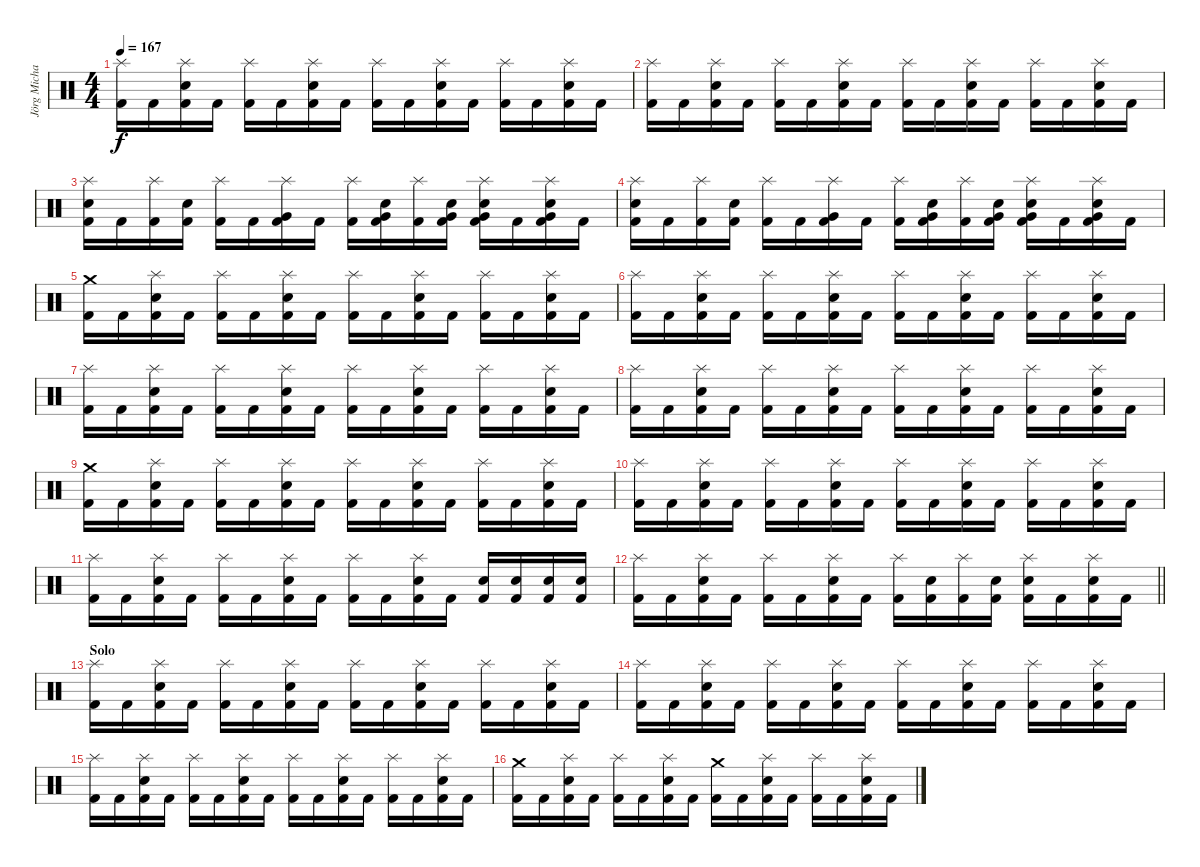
\track ("Jörg Michael" "Jörg Micha") {instrument percussion}
\staff {score}
\articulation defaults
\ts (4 4)
\tempo 167
\clef neutral
\ks c
("Splash (hit)" "Kick (hit) 2").16{dy f} "Kick (hit) 2".16 ("Splash (hit)" "Snare (hit) 2" "Kick (hit) 2").16 "Kick (hit) 2".16 ("Splash (hit)" "Kick (hit) 2").16 "Kick (hit) 2".16 ("Splash (hit)" "Snare (hit) 2" "Kick (hit) 2").16 "Kick (hit) 2".16 ("Splash (hit)" "Kick (hit) 2").16 "Kick (hit) 2".16 ("Splash (hit)" "Snare (hit) 2" "Kick (hit) 2").16 "Kick (hit) 2".16 ("Splash (hit)" "Kick (hit) 2").16 "Kick (hit) 2".16 ("Splash (hit)" "Snare (hit) 2" "Kick (hit) 2").16 "Kick (hit) 2".16 |
("Splash (hit)" "Kick (hit) 2").16 "Kick (hit) 2".16 ("Splash (hit)" "Snare (hit) 2" "Kick (hit) 2").16 "Kick (hit) 2".16 ("Splash (hit)" "Kick (hit) 2").16 "Kick (hit) 2".16 ("Splash (hit)" "Snare (hit) 2" "Kick (hit) 2").16 "Kick (hit) 2".16 ("Splash (hit)" "Kick (hit) 2").16 "Kick (hit) 2".16 ("Splash (hit)" "Snare (hit) 2" "Kick (hit) 2").16 "Kick (hit) 2".16 ("Splash (hit)" "Kick (hit) 2").16 "Kick (hit) 2".16 ("Splash (hit)" "Snare (hit) 2" "Kick (hit) 2").16 "Kick (hit) 2".16 |
("Splash (hit)" "Snare (hit) 2" "Kick (hit) 2").16 "Kick (hit) 2".16 ("Splash (hit)" "Kick (hit) 2").16 ("Snare (hit) 2" "Kick (hit) 2").16 ("Splash (hit)" "Kick (hit) 2").16 "Kick (hit) 2".16 ("Splash (hit)" "Very Low Tom (hit)" "Kick (hit) 2").16 "Kick (hit) 2".16 ("Splash (hit)" "Kick (hit) 2").16 ("Snare (hit) 2" "Very Low Tom (hit)" "Kick (hit) 2").16 ("Splash (hit)" "Kick (hit) 2").16 ("Very Low Tom (hit)" "Snare (hit) 2" "Kick (hit) 2").16 ("Splash (hit)" "Very Low Tom (hit)" "Snare (hit) 2" "Kick (hit) 2").16 "Kick (hit) 2".16 ("Splash (hit)" "Very Low Tom (hit)" "Snare (hit) 2" "Kick (hit) 2").16 "Kick (hit) 2".16 |
("Splash (hit)" "Snare (hit) 2" "Kick (hit) 2").16 "Kick (hit) 2".16 ("Splash (hit)" "Kick (hit) 2").16 ("Snare (hit) 2" "Kick (hit) 2").16 ("Splash (hit)" "Kick (hit) 2").16 "Kick (hit) 2".16 ("Splash (hit)" "Very Low Tom (hit)" "Kick (hit) 2").16 "Kick (hit) 2".16 ("Splash (hit)" "Kick (hit) 2").16 ("Snare (hit) 2" "Very Low Tom (hit)" "Kick (hit) 2").16 ("Splash (hit)" "Kick (hit) 2").16 ("Very Low Tom (hit)" "Snare (hit) 2" "Kick (hit) 2").16 ("Splash (hit)" "Very Low Tom (hit)" "Snare (hit) 2" "Kick (hit) 2").16 "Kick (hit) 2".16 ("Splash (hit)" "Very Low Tom (hit)" "Snare (hit) 2" "Kick (hit) 2").16 "Kick (hit) 2".16 |
("Crash medium (hit)" "Kick (hit) 2").16 "Kick (hit) 2".16 ("Splash (hit)" "Snare (hit) 2" "Kick (hit) 2").16 "Kick (hit) 2".16 ("Splash (hit)" "Kick (hit) 2").16 "Kick (hit) 2".16 ("Splash (hit)" "Snare (hit) 2" "Kick (hit) 2").16 "Kick (hit) 2".16 ("Splash (hit)" "Kick (hit) 2").16 "Kick (hit) 2".16 ("Splash (hit)" "Snare (hit) 2" "Kick (hit) 2").16 "Kick (hit) 2".16 ("Splash (hit)" "Kick (hit) 2").16 "Kick (hit) 2".16 ("Splash (hit)" "Snare (hit) 2" "Kick (hit) 2").16 "Kick (hit) 2".16 |
("Splash (hit)" "Kick (hit) 2").16 "Kick (hit) 2".16 ("Splash (hit)" "Snare (hit) 2" "Kick (hit) 2").16 "Kick (hit) 2".16 ("Splash (hit)" "Kick (hit) 2").16 "Kick (hit) 2".16 ("Splash (hit)" "Snare (hit) 2" "Kick (hit) 2").16 "Kick (hit) 2".16 ("Splash (hit)" "Kick (hit) 2").16 "Kick (hit) 2".16 ("Splash (hit)" "Snare (hit) 2" "Kick (hit) 2").16 "Kick (hit) 2".16 ("Splash (hit)" "Kick (hit) 2").16 "Kick (hit) 2".16 ("Splash (hit)" "Snare (hit) 2" "Kick (hit) 2").16 "Kick (hit) 2".16 |
("Splash (hit)" "Kick (hit) 2").16 "Kick (hit) 2".16 ("Splash (hit)" "Snare (hit) 2" "Kick (hit) 2").16 "Kick (hit) 2".16 ("Splash (hit)" "Kick (hit) 2").16 "Kick (hit) 2".16 ("Splash (hit)" "Snare (hit) 2" "Kick (hit) 2").16 "Kick (hit) 2".16 ("Splash (hit)" "Kick (hit) 2").16 "Kick (hit) 2".16 ("Splash (hit)" "Snare (hit) 2" "Kick (hit) 2").16 "Kick (hit) 2".16 ("Splash (hit)" "Kick (hit) 2").16 "Kick (hit) 2".16 ("Splash (hit)" "Snare (hit) 2" "Kick (hit) 2").16 "Kick (hit) 2".16 |
("Splash (hit)" "Kick (hit) 2").16 "Kick (hit) 2".16 ("Splash (hit)" "Snare (hit) 2" "Kick (hit) 2").16 "Kick (hit) 2".16 ("Splash (hit)" "Kick (hit) 2").16 "Kick (hit) 2".16 ("Splash (hit)" "Snare (hit) 2" "Kick (hit) 2").16 "Kick (hit) 2".16 ("Splash (hit)" "Kick (hit) 2").16 "Kick (hit) 2".16 ("Splash (hit)" "Snare (hit) 2" "Kick (hit) 2").16 "Kick (hit) 2".16 ("Splash (hit)" "Kick (hit) 2").16 "Kick (hit) 2".16 ("Splash (hit)" "Snare (hit) 2" "Kick (hit) 2").16 "Kick (hit) 2".16 |
("Crash medium (hit)" "Kick (hit) 2").16 "Kick (hit) 2".16 ("Splash (hit)" "Snare (hit) 2" "Kick (hit) 2").16 "Kick (hit) 2".16 ("Splash (hit)" "Kick (hit) 2").16 "Kick (hit) 2".16 ("Splash (hit)" "Snare (hit) 2" "Kick (hit) 2").16 "Kick (hit) 2".16 ("Splash (hit)" "Kick (hit) 2").16 "Kick (hit) 2".16 ("Splash (hit)" "Snare (hit) 2" "Kick (hit) 2").16 "Kick (hit) 2".16 ("Splash (hit)" "Kick (hit) 2").16 "Kick (hit) 2".16 ("Splash (hit)" "Snare (hit) 2" "Kick (hit) 2").16 "Kick (hit) 2".16 |
("Splash (hit)" "Kick (hit) 2").16 "Kick (hit) 2".16 ("Splash (hit)" "Snare (hit) 2" "Kick (hit) 2").16 "Kick (hit) 2".16 ("Splash (hit)" "Kick (hit) 2").16 "Kick (hit) 2".16 ("Splash (hit)" "Snare (hit) 2" "Kick (hit) 2").16 "Kick (hit) 2".16 ("Splash (hit)" "Kick (hit) 2").16 "Kick (hit) 2".16 ("Splash (hit)" "Snare (hit) 2" "Kick (hit) 2").16 "Kick (hit) 2".16 ("Splash (hit)" "Kick (hit) 2").16 "Kick (hit) 2".16 ("Splash (hit)" "Snare (hit) 2" "Kick (hit) 2").16 "Kick (hit) 2".16 |
("Splash (hit)" "Kick (hit) 2").16 "Kick (hit) 2".16 ("Splash (hit)" "Snare (hit) 2" "Kick (hit) 2").16 "Kick (hit) 2".16 ("Splash (hit)" "Kick (hit) 2").16 "Kick (hit) 2".16 ("Splash (hit)" "Snare (hit) 2" "Kick (hit) 2").16 "Kick (hit) 2".16 ("Splash (hit)" "Kick (hit) 2").16 "Kick (hit) 2".16 ("Splash (hit)" "Snare (hit) 2" "Kick (hit) 2").16 "Kick (hit) 2".16 ("Snare (hit) 2" "Kick (hit) 2").16 ("Snare (hit) 2" "Kick (hit) 2").16 ("Snare (hit) 2" "Kick (hit) 2").16 ("Snare (hit) 2" "Kick (hit) 2").16 |
\barLineRight lightlight
("Splash (hit)" "Kick (hit) 2").16 "Kick (hit) 2".16 ("Splash (hit)" "Snare (hit) 2" "Kick (hit) 2").16 "Kick (hit) 2".16 ("Splash (hit)" "Kick (hit) 2").16 "Kick (hit) 2".16 ("Splash (hit)" "Snare (hit) 2" "Kick (hit) 2").16 "Kick (hit) 2".16 ("Splash (hit)" "Kick (hit) 2").16 ("Snare (hit) 2" "Kick (hit) 2").16 ("Splash (hit)" "Kick (hit) 2").16 ("Snare (hit) 2" "Kick (hit) 2").16 ("Splash (hit)" "Snare (hit) 2" "Kick (hit) 2").16 "Kick (hit) 2".16 ("Splash (hit)" "Snare (hit) 2" "Kick (hit) 2").16 "Kick (hit) 2".16 |
\section ("" "Solo")
("Splash (hit)" "Kick (hit) 2").16 "Kick (hit) 2".16 ("Splash (hit)" "Snare (hit) 2" "Kick (hit) 2").16 "Kick (hit) 2".16 ("Splash (hit)" "Kick (hit) 2").16 "Kick (hit) 2".16 ("Splash (hit)" "Snare (hit) 2" "Kick (hit) 2").16 "Kick (hit) 2".16 ("Splash (hit)" "Kick (hit) 2").16 "Kick (hit) 2".16 ("Splash (hit)" "Snare (hit) 2" "Kick (hit) 2").16 "Kick (hit) 2".16 ("Splash (hit)" "Kick (hit) 2").16 "Kick (hit) 2".16 ("Splash (hit)" "Snare (hit) 2" "Kick (hit) 2").16 "Kick (hit) 2".16 |
("Splash (hit)" "Kick (hit) 2").16 "Kick (hit) 2".16 ("Splash (hit)" "Snare (hit) 2" "Kick (hit) 2").16 "Kick (hit) 2".16 ("Splash (hit)" "Kick (hit) 2").16 "Kick (hit) 2".16 ("Splash (hit)" "Snare (hit) 2" "Kick (hit) 2").16 "Kick (hit) 2".16 ("Splash (hit)" "Kick (hit) 2").16 "Kick (hit) 2".16 ("Splash (hit)" "Snare (hit) 2" "Kick (hit) 2").16 "Kick (hit) 2".16 ("Splash (hit)" "Kick (hit) 2").16 "Kick (hit) 2".16 ("Splash (hit)" "Snare (hit) 2" "Kick (hit) 2").16 "Kick (hit) 2".16 |
("Splash (hit)" "Kick (hit) 2").16 "Kick (hit) 2".16 ("Splash (hit)" "Snare (hit) 2" "Kick (hit) 2").16 "Kick (hit) 2".16 ("Splash (hit)" "Kick (hit) 2").16 "Kick (hit) 2".16 ("Splash (hit)" "Snare (hit) 2" "Kick (hit) 2").16 "Kick (hit) 2".16 ("Splash (hit)" "Kick (hit) 2").16 "Kick (hit) 2".16 ("Splash (hit)" "Snare (hit) 2" "Kick (hit) 2").16 "Kick (hit) 2".16 ("Splash (hit)" "Kick (hit) 2").16 "Kick (hit) 2".16 ("Splash (hit)" "Snare (hit) 2" "Kick (hit) 2").16 "Kick (hit) 2".16 |
("Crash medium (hit)" "Kick (hit) 2").16 "Kick (hit) 2".16 ("Splash (hit)" "Snare (hit) 2" "Kick (hit) 2").16 "Kick (hit) 2".16 ("Splash (hit)" "Kick (hit) 2").16 "Kick (hit) 2".16 ("Splash (hit)" "Snare (hit) 2" "Kick (hit) 2").16 "Kick (hit) 2".16 ("Crash medium (hit)" "Kick (hit) 2").16 "Kick (hit) 2".16 ("Splash (hit)" "Snare (hit) 2" "Kick (hit) 2").16 "Kick (hit) 2".16 ("Splash (hit)" "Kick (hit) 2").16 "Kick (hit) 2".16 ("Splash (hit)" "Snare (hit) 2" "Kick (hit) 2").16 "Kick (hit) 2".16
